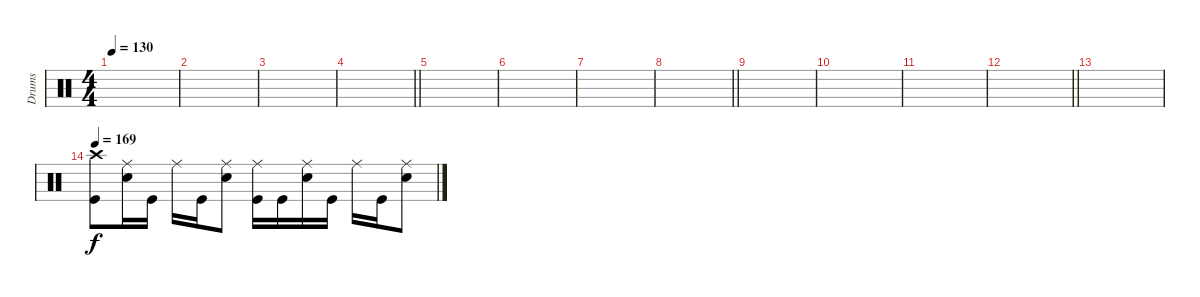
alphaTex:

\track ("Drums" "Drums") {instrument percussion}
\staff
\articulation defaults
\ts (4 4)
\tempo 130
\clef neutral
\ks c
|
|
|
\barLineRight lightlight
|
|
|
|
\barLineRight lightlight
|
|
|
|
\barLineRight lightlight
|
|
\tempo 169
("Crash high (hit)" "Kick (hit)").8 ("Ride (middle)" "Electric Snare (hit)").16 "Kick (hit)".16 "Ride (middle)".16 "Kick (hit)".16 ("Ride (middle)" "Electric Snare (hit)").8 ("Ride (middle)" "Kick (hit)").16 "Kick (hit)".16 ("Ride (middle)" "Electric Snare (hit)").16 "Kick (hit)".16 "Ride (middle)".16 "Kick (hit)".16 ("Ride (middle)" "Electric Snare (hit)").8
